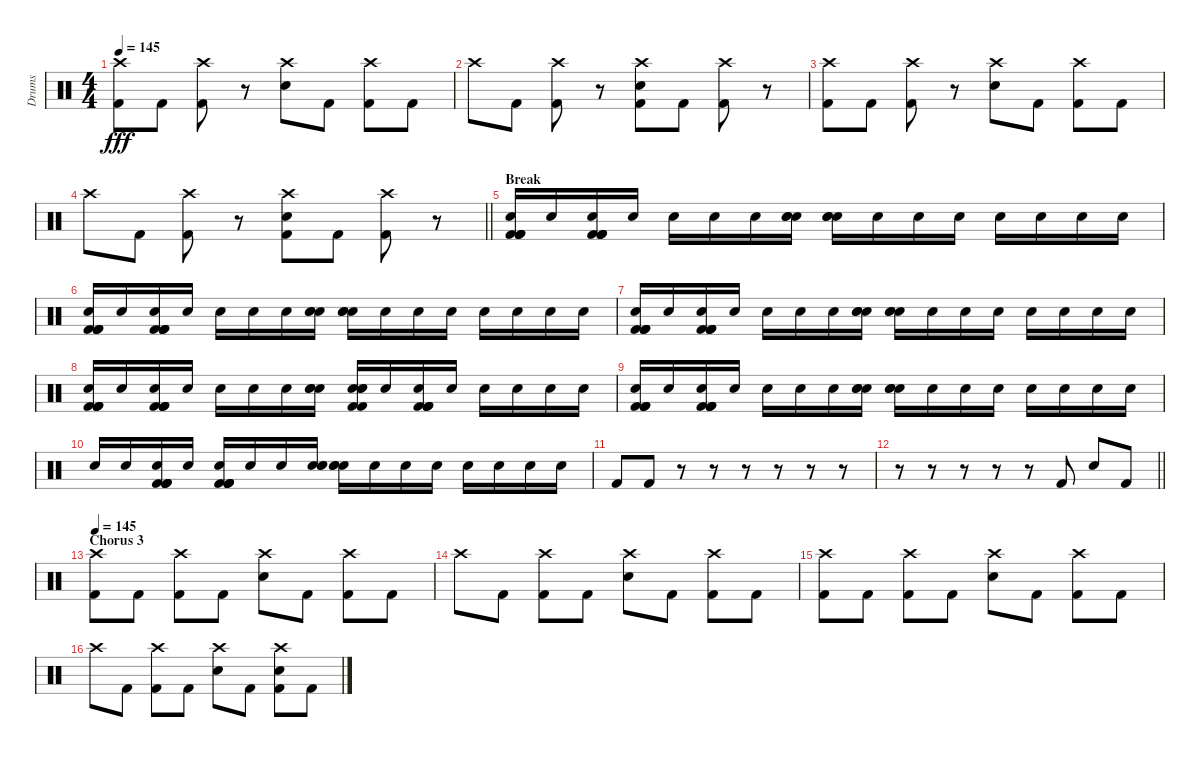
\track ("Drums" "Drums") {instrument percussion}
\staff {score}
\articulation defaults
\ts (4 4)
\tempo 145
\clef neutral
\ks c
("Crash high (hit)" "Kick (hit) 2").8{dy fff} "Kick (hit) 2".8 ("Crash high (hit)" "Kick (hit) 2").8 r.8 ("Crash high (hit)" "Electric Snare (hit)").8 "Kick (hit) 2".8 ("Crash high (hit)" "Kick (hit) 2").8 "Kick (hit) 2".8 |
"Crash high (hit)".8 "Kick (hit) 2".8 ("Crash high (hit)" "Kick (hit) 2").8 r.8 ("Crash high (hit)" "Electric Snare (hit)" "Kick (hit) 2").8 "Kick (hit) 2".8 ("Crash high (hit)" "Kick (hit) 2").8 r.8 |
("Crash high (hit)" "Kick (hit) 2").8 "Kick (hit) 2".8 ("Crash high (hit)" "Kick (hit) 2").8 r.8 ("Crash high (hit)" "Electric Snare (hit)").8 "Kick (hit) 2".8 ("Crash high (hit)" "Kick (hit) 2").8 "Kick (hit) 2".8 |
\barLineRight lightlight "Crash high (hit)".8 "Kick (hit) 2".8
("Crash high (hit)" "Kick (hit) 2").8 r.8 ("Crash high (hit)" "Electric Snare (hit)" "Kick (hit) 2").8 "Kick (hit) 2".8 ("Crash high (hit)" "Kick (hit) 2").8 r.8 |
\section ("" "Break")
("Kick (hit) 2" "Kick (hit) 2" "Kick (hit) 2" "Snare (hit) 2" "Kick (hit) 2").16{volume 8} "Snare (hit) 2".16 ("Kick (hit) 2" "Kick (hit) 2" "Kick (hit) 2" "Snare (hit) 2" "Kick (hit) 2").16 "Snare (hit) 2".16 "Snare (hit) 2".16 "Snare (hit) 2".16 "Snare (hit) 2".16 ("Electric Snare (hit)" "Snare (hit) 2" "Snare (hit) 2").16 ("Electric Snare (hit)" "Snare (hit) 2" "Snare (hit) 2").16 "Snare (hit) 2".16 "Snare (hit) 2".16 "Snare (hit) 2".16 "Snare (hit) 2".16 "Snare (hit) 2".16 "Snare (hit) 2".16 "Snare (hit) 2".16 |
("Kick (hit) 2" "Kick (hit) 2" "Kick (hit) 2" "Snare (hit) 2" "Kick (hit) 2").16 "Snare (hit) 2".16 ("Kick (hit) 2" "Kick (hit) 2" "Kick (hit) 2" "Snare (hit) 2" "Kick (hit) 2").16 "Snare (hit) 2".16 "Snare (hit) 2".16 "Snare (hit) 2".16 "Snare (hit) 2".16 ("Electric Snare (hit)" "Snare (hit) 2" "Snare (hit) 2").16 ("Electric Snare (hit)" "Snare (hit) 2" "Snare (hit) 2").16 "Snare (hit) 2".16 "Snare (hit) 2".16 "Snare (hit) 2".16 "Snare (hit) 2".16 "Snare (hit) 2".16 "Snare (hit) 2".16 "Snare (hit) 2".16 |
("Kick (hit) 2" "Kick (hit) 2" "Kick (hit) 2" "Snare (hit) 2" "Kick (hit) 2").16 "Snare (hit) 2".16 ("Kick (hit) 2" "Kick (hit) 2" "Kick (hit) 2" "Snare (hit) 2" "Kick (hit) 2").16 "Snare (hit) 2".16 "Snare (hit) 2".16 "Snare (hit) 2".16 "Snare (hit) 2".16 ("Electric Snare (hit)" "Snare (hit) 2" "Snare (hit) 2").16 ("Electric Snare (hit)" "Snare (hit) 2" "Snare (hit) 2").16 "Snare (hit) 2".16 "Snare (hit) 2".16 "Snare (hit) 2".16 "Snare (hit) 2".16 "Snare (hit) 2".16 "Snare (hit) 2".16 "Snare (hit) 2".16 |
("Kick (hit) 2" "Kick (hit) 2" "Kick (hit) 2" "Snare (hit) 2" "Kick (hit) 2").16 "Snare (hit) 2".16 ("Kick (hit) 2" "Kick (hit) 2" "Kick (hit) 2" "Snare (hit) 2" "Kick (hit) 2").16 "Snare (hit) 2".16 "Snare (hit) 2".16 "Snare (hit) 2".16 "Snare (hit) 2".16 ("Electric Snare (hit)" "Snare (hit) 2" "Snare (hit) 2").16 ("Electric Snare (hit)" "Electric Snare (hit)" "Kick (hit) 2" "Snare (hit) 2" "Kick (hit) 2").16 "Snare (hit) 2".16 ("Kick (hit) 2" "Kick (hit) 2" "Kick (hit) 2" "Snare (hit) 2" "Kick (hit) 2").16 "Snare (hit) 2".16 "Snare (hit) 2".16 "Snare (hit) 2".16 "Snare (hit) 2".16 "Snare (hit) 2".16 |
("Kick (hit) 2" "Kick (hit) 2" "Kick (hit) 2" "Snare (hit) 2" "Kick (hit) 2").16 "Snare (hit) 2".16 ("Kick (hit) 2" "Kick (hit) 2" "Kick (hit) 2" "Snare (hit) 2" "Kick (hit) 2").16 "Snare (hit) 2".16 "Snare (hit) 2".16 "Snare (hit) 2".16 "Snare (hit) 2".16 ("Electric Snare (hit)" "Snare (hit) 2" "Snare (hit) 2").16 ("Electric Snare (hit)" "Snare (hit) 2" "Snare (hit) 2").16 "Snare (hit) 2".16 "Snare (hit) 2".16 "Snare (hit) 2".16 "Snare (hit) 2".16 "Snare (hit) 2".16 "Snare (hit) 2".16 "Snare (hit) 2".16 |
"Snare (hit) 2".16 "Snare (hit) 2".16 ("Kick (hit) 2" "Kick (hit) 2" "Kick (hit) 2" "Snare (hit) 2" "Kick (hit) 2").16 "Snare (hit) 2".16 ("Kick (hit) 2" "Kick (hit) 2" "Kick (hit) 2" "Snare (hit) 2" "Kick (hit) 2").16 "Snare (hit) 2".16 "Snare (hit) 2".16 ("Electric Snare (hit)" "Snare (hit) 2" "Snare (hit) 2").16 ("Electric Snare (hit)" "Snare (hit) 2" "Snare (hit) 2").16 "Snare (hit) 2".16 "Snare (hit) 2".16 "Snare (hit) 2".16 "Snare (hit) 2".16 "Snare (hit) 2".16 "Snare (hit) 2".16 "Snare (hit) 2".16 |
"Kick (hit) 2".8{volume 12} "Kick (hit) 2".8 r.8 r.8 r.8 r.8 r.8 r.8 |
\barLineRight lightlight
r.8 r.8 r.8 r.8 r.8 "Kick (hit) 2".8 "Electric Snare (hit)".8 "Kick (hit) 2".8 |
\section ("" "Chorus 3")
\tempo 145
("Crash high (hit)" "Kick (hit) 2").8 "Kick (hit) 2".8 ("Crash high (hit)" "Kick (hit) 2").8 "Kick (hit) 2".8 ("Crash high (hit)" "Electric Snare (hit)").8 "Kick (hit) 2".8 ("Crash high (hit)" "Kick (hit) 2").8 "Kick (hit) 2".8 |
"Crash high (hit)".8 "Kick (hit) 2".8 ("Crash high (hit)" "Kick (hit) 2").8 "Kick (hit) 2".8 ("Crash high (hit)" "Electric Snare (hit)").8 "Kick (hit) 2".8 ("Crash high (hit)" "Kick (hit) 2").8 "Kick (hit) 2".8 |
("Crash high (hit)" "Kick (hit) 2").8 "Kick (hit) 2".8 ("Crash high (hit)" "Kick (hit) 2").8 "Kick (hit) 2".8 ("Crash high (hit)" "Electric Snare (hit)").8 "Kick (hit) 2".8 ("Crash high (hit)" "Kick (hit) 2").8 "Kick (hit) 2".8 |
"Crash high (hit)".8 "Kick (hit) 2".8 ("Crash high (hit)" "Kick (hit) 2").8 "Kick (hit) 2".8 ("Crash high (hit)" "Electric Snare (hit)").8 "Kick (hit) 2".8 ("Crash high (hit)" "Electric Snare (hit)" "Kick (hit) 2").8 "Kick (hit) 2".8
